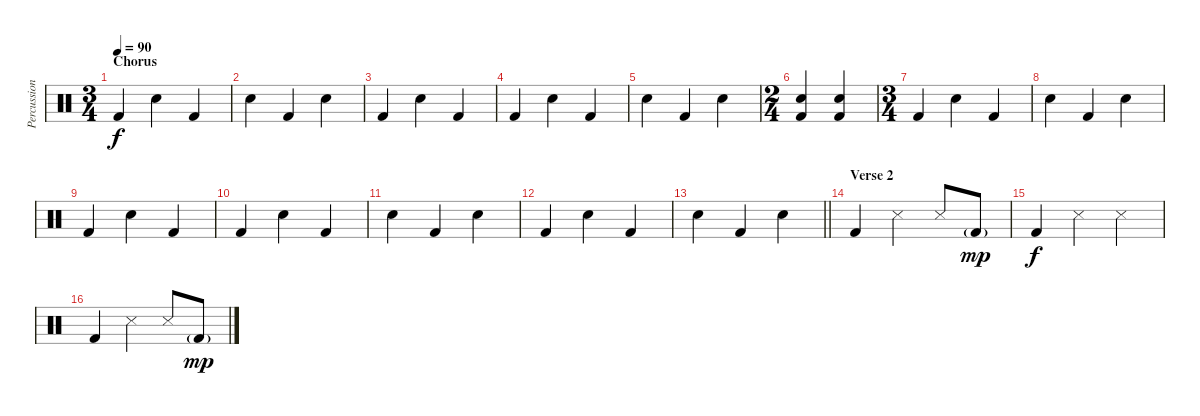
\track ("Percussion" "Percussion") {instrument percussion}
\staff {score}
\articulation defaults
\ts (3 4)
\section ("" "Chorus")
\tempo 90
\clef neutral
\ks c "Kick (hit) 2".4{dy f} "Snare (hit) 2".4 "Kick (hit) 2".4
|
"Snare (hit) 2".4 "Kick (hit) 2".4 "Snare (hit) 2".4 |
"Kick (hit) 2".4 "Snare (hit) 2".4 "Kick (hit) 2".4 |
"Kick (hit) 2".4 "Snare (hit) 2".4 "Kick (hit) 2".4 |
"Snare (hit) 2".4 "Kick (hit) 2".4 "Snare (hit) 2".4 |
\ts (2 4)
("Snare (hit) 2" "Kick (hit) 2").4 ("Snare (hit) 2" "Kick (hit) 2").4 |
\ts (3 4)
"Kick (hit) 2".4 "Snare (hit) 2".4 "Kick (hit) 2".4 |
"Snare (hit) 2".4 "Kick (hit) 2".4 "Snare (hit) 2".4 |
"Kick (hit) 2".4 "Snare (hit) 2".4 "Kick (hit) 2".4 |
"Kick (hit) 2".4 "Snare (hit) 2".4 "Kick (hit) 2".4 |
"Snare (hit) 2".4 "Kick (hit) 2".4 "Snare (hit) 2".4 |
"Kick (hit) 2".4 "Snare (hit) 2".4 "Kick (hit) 2".4 |
\barLineRight lightlight "Snare (hit) 2".4 "Kick (hit) 2".4 "Snare (hit) 2".4
|
\section ("" "Verse 2")
"Kick (hit) 2".4 "Snare (side stick) 3".4 "Snare (side stick) 3".8 "Kick (hit) 2"{g}.8{dy mp} |
"Kick (hit) 2".4{dy f} "Snare (side stick) 3".4 "Snare (side stick) 3".4 |
"Kick (hit) 2".4 "Snare (side stick) 3".4 "Snare (side stick) 3".8 "Kick (hit) 2"{g}.8{dy mp}
